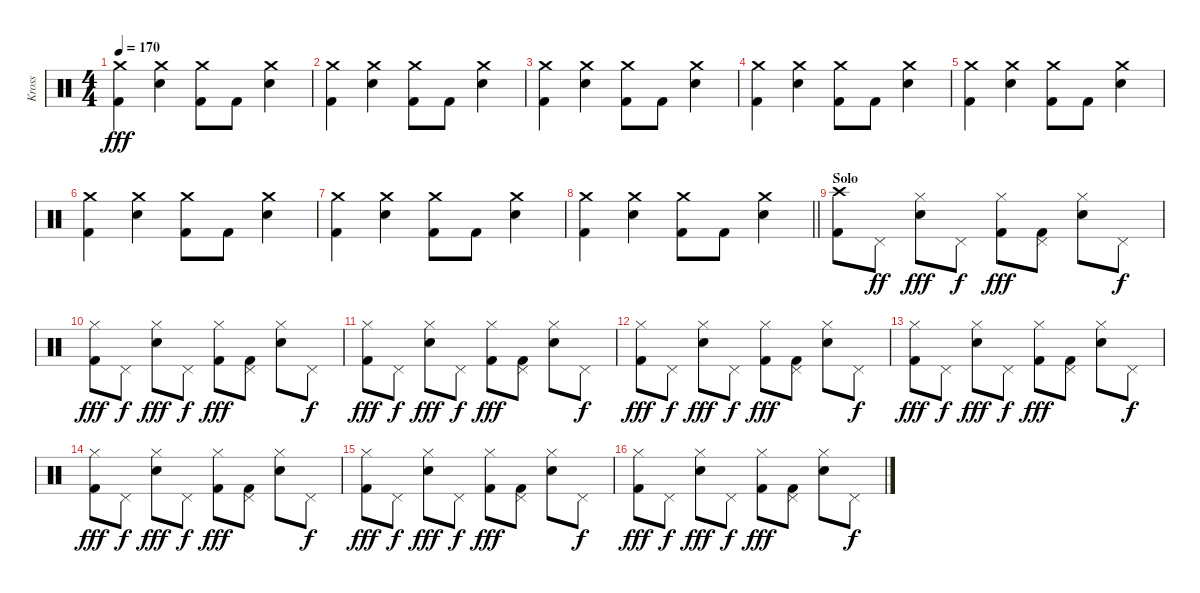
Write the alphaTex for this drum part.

\track ("Kross" "Kross") {instrument percussion}
\staff {score}
\articulation defaults
\ts (4 4)
\tempo 170
\clef neutral
\ks c
("Crash medium (hit)" "Kick (hit) 2").4{dy fff} ("Crash medium (hit)" "Snare (hit) 2").4 ("Crash medium (hit)" "Kick (hit) 2").8 "Kick (hit) 2".8 ("Crash medium (hit)" "Snare (hit) 2").4 |
("Crash medium (hit)" "Kick (hit) 2").4 ("Crash medium (hit)" "Snare (hit) 2").4 ("Crash medium (hit)" "Kick (hit) 2").8 "Kick (hit) 2".8 ("Crash medium (hit)" "Snare (hit) 2").4 |
("Crash medium (hit)" "Kick (hit) 2").4 ("Crash medium (hit)" "Snare (hit) 2").4 ("Crash medium (hit)" "Kick (hit) 2").8 "Kick (hit) 2".8 ("Crash medium (hit)" "Snare (hit) 2").4 |
("Crash medium (hit)" "Kick (hit) 2").4 ("Crash medium (hit)" "Snare (hit) 2").4 ("Crash medium (hit)" "Kick (hit) 2").8 "Kick (hit) 2".8 ("Crash medium (hit)" "Snare (hit) 2").4 |
("Crash medium (hit)" "Kick (hit) 2").4 ("Crash medium (hit)" "Snare (hit) 2").4 ("Crash medium (hit)" "Kick (hit) 2").8 "Kick (hit) 2".8 ("Crash medium (hit)" "Snare (hit) 2").4 |
("Crash medium (hit)" "Kick (hit) 2").4 ("Crash medium (hit)" "Snare (hit) 2").4 ("Crash medium (hit)" "Kick (hit) 2").8 "Kick (hit) 2".8 ("Crash medium (hit)" "Snare (hit) 2").4 |
("Crash medium (hit)" "Kick (hit) 2").4 ("Crash medium (hit)" "Snare (hit) 2").4 ("Crash medium (hit)" "Kick (hit) 2").8 "Kick (hit) 2".8 ("Crash medium (hit)" "Snare (hit) 2").4 |
\barLineRight lightlight
("Crash medium (hit)" "Kick (hit) 2").4 ("Crash medium (hit)" "Snare (hit) 2").4 ("Crash medium (hit)" "Kick (hit) 2").8 "Kick (hit) 2".8 ("Crash medium (hit)" "Snare (hit) 2").4 |
\section ("" "Solo")
("Crash high (hit)" "Kick (hit) 2").8 "Pedal Hi-Hat (hit)".8{dy ff} ("Hi-Hat (closed)" "Snare (hit) 2").8{dy fff} "Pedal Hi-Hat (hit)".8{dy f} ("Hi-Hat (closed)" "Kick (hit) 2").8{dy fff} ("Pedal Hi-Hat (hit)" "Kick (hit) 2").8 ("Hi-Hat (closed)" "Snare (hit) 2").8 "Pedal Hi-Hat (hit)".8{dy f} |
("Hi-Hat (closed)" "Kick (hit) 2").8{dy fff} "Pedal Hi-Hat (hit)".8{dy f} ("Hi-Hat (closed)" "Snare (hit) 2").8{dy fff} "Pedal Hi-Hat (hit)".8{dy f} ("Hi-Hat (closed)" "Kick (hit) 2").8{dy fff} ("Pedal Hi-Hat (hit)" "Kick (hit) 2").8 ("Hi-Hat (closed)" "Snare (hit) 2").8 "Pedal Hi-Hat (hit)".8{dy f} |
("Hi-Hat (closed)" "Kick (hit) 2").8{dy fff} "Pedal Hi-Hat (hit)".8{dy f} ("Hi-Hat (closed)" "Snare (hit) 2").8{dy fff} "Pedal Hi-Hat (hit)".8{dy f} ("Hi-Hat (closed)" "Kick (hit) 2").8{dy fff} ("Pedal Hi-Hat (hit)" "Kick (hit) 2").8 ("Hi-Hat (closed)" "Snare (hit) 2").8 "Pedal Hi-Hat (hit)".8{dy f} |
("Hi-Hat (closed)" "Kick (hit) 2").8{dy fff} "Pedal Hi-Hat (hit)".8{dy f} ("Hi-Hat (closed)" "Snare (hit) 2").8{dy fff} "Pedal Hi-Hat (hit)".8{dy f} ("Hi-Hat (closed)" "Kick (hit) 2").8{dy fff} ("Pedal Hi-Hat (hit)" "Kick (hit) 2").8 ("Hi-Hat (closed)" "Snare (hit) 2").8 "Pedal Hi-Hat (hit)".8{dy f} |
("Hi-Hat (closed)" "Kick (hit) 2").8{dy fff} "Pedal Hi-Hat (hit)".8{dy f} ("Hi-Hat (closed)" "Snare (hit) 2").8{dy fff} "Pedal Hi-Hat (hit)".8{dy f} ("Hi-Hat (closed)" "Kick (hit) 2").8{dy fff} ("Pedal Hi-Hat (hit)" "Kick (hit) 2").8 ("Hi-Hat (closed)" "Snare (hit) 2").8 "Pedal Hi-Hat (hit)".8{dy f} |
("Hi-Hat (closed)" "Kick (hit) 2").8{dy fff} "Pedal Hi-Hat (hit)".8{dy f} ("Hi-Hat (closed)" "Snare (hit) 2").8{dy fff} "Pedal Hi-Hat (hit)".8{dy f} ("Hi-Hat (closed)" "Kick (hit) 2").8{dy fff} ("Pedal Hi-Hat (hit)" "Kick (hit) 2").8 ("Hi-Hat (closed)" "Snare (hit) 2").8 "Pedal Hi-Hat (hit)".8{dy f} |
("Hi-Hat (closed)" "Kick (hit) 2").8{dy fff} "Pedal Hi-Hat (hit)".8{dy f} ("Hi-Hat (closed)" "Snare (hit) 2").8{dy fff} "Pedal Hi-Hat (hit)".8{dy f} ("Hi-Hat (closed)" "Kick (hit) 2").8{dy fff} ("Pedal Hi-Hat (hit)" "Kick (hit) 2").8 ("Hi-Hat (closed)" "Snare (hit) 2").8 "Pedal Hi-Hat (hit)".8{dy f} |
("Hi-Hat (closed)" "Kick (hit) 2").8{dy fff} "Pedal Hi-Hat (hit)".8{dy f} ("Hi-Hat (closed)" "Snare (hit) 2").8{dy fff} "Pedal Hi-Hat (hit)".8{dy f} ("Hi-Hat (closed)" "Kick (hit) 2").8{dy fff} ("Pedal Hi-Hat (hit)" "Kick (hit) 2").8 ("Hi-Hat (closed)" "Snare (hit) 2").8 "Pedal Hi-Hat (hit)".8{dy f}
